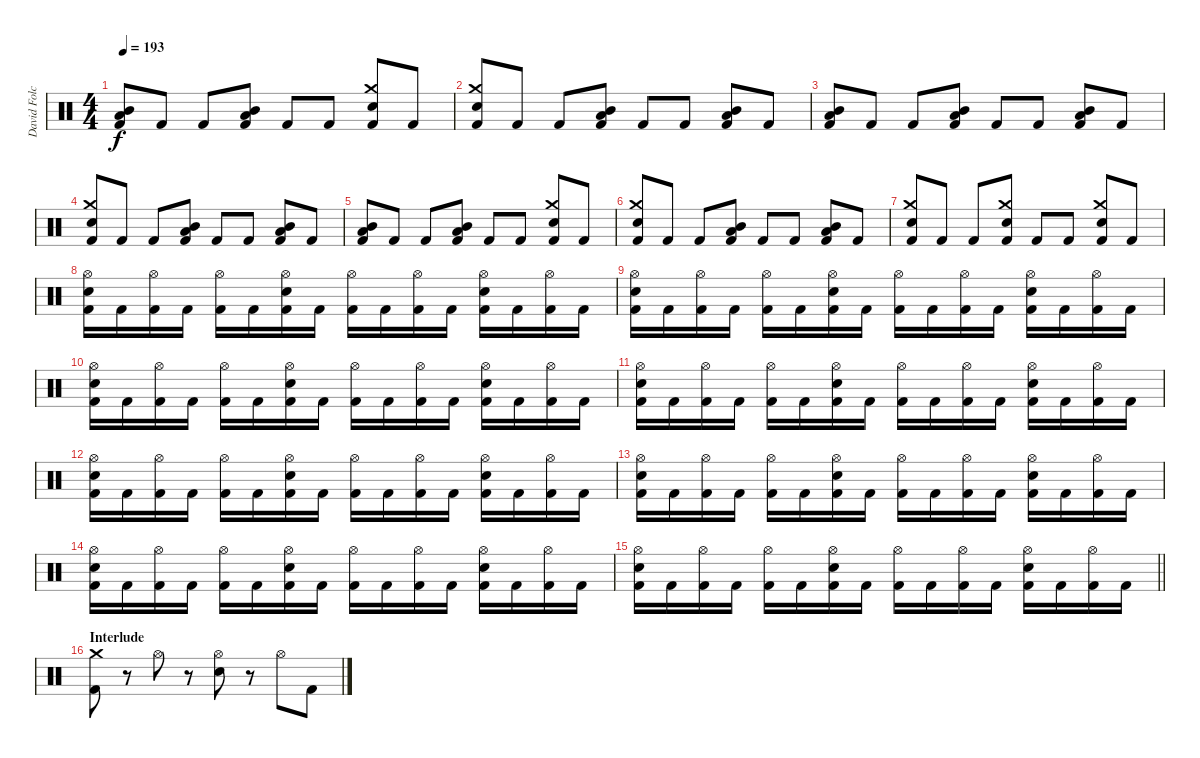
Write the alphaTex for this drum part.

\track ("David Folchitto (Drums)" "David Folc") {instrument percussion}
\staff {score}
\articulation defaults
\ts (4 4)
\tempo 193
\clef neutral
\ks c
("Mid Tom (hit)" "Low Tom (hit)" "Kick (hit) 2").8{dy f} "Kick (hit) 2".8 "Kick (hit) 2".8 ("Mid Tom (hit)" "Low Tom (hit)" "Kick (hit) 2").8 "Kick (hit) 2".8 "Kick (hit) 2".8 ("Crash medium (hit)" "Snare (hit) 2" "Kick (hit) 2").8 "Kick (hit) 2".8 |
("Crash medium (hit)" "Snare (hit) 2" "Kick (hit) 2").8 "Kick (hit) 2".8 "Kick (hit) 2".8 ("Mid Tom (hit)" "Low Tom (hit)" "Kick (hit) 2").8 "Kick (hit) 2".8 "Kick (hit) 2".8 ("Mid Tom (hit)" "Low Tom (hit)" "Kick (hit) 2").8 "Kick (hit) 2".8 |
("Mid Tom (hit)" "Low Tom (hit)" "Kick (hit) 2").8 "Kick (hit) 2".8 "Kick (hit) 2".8 ("Mid Tom (hit)" "Low Tom (hit)" "Kick (hit) 2").8 "Kick (hit) 2".8 "Kick (hit) 2".8 ("Mid Tom (hit)" "Low Tom (hit)" "Kick (hit) 2").8 "Kick (hit) 2".8 |
("Crash medium (hit)" "Snare (hit) 2" "Kick (hit) 2").8 "Kick (hit) 2".8 "Kick (hit) 2".8 ("Mid Tom (hit)" "Low Tom (hit)" "Kick (hit) 2").8 "Kick (hit) 2".8 "Kick (hit) 2".8 ("Mid Tom (hit)" "Low Tom (hit)" "Kick (hit) 2").8 "Kick (hit) 2".8 |
("Mid Tom (hit)" "Low Tom (hit)" "Kick (hit) 2").8 "Kick (hit) 2".8 "Kick (hit) 2".8 ("Mid Tom (hit)" "Low Tom (hit)" "Kick (hit) 2").8 "Kick (hit) 2".8 "Kick (hit) 2".8 ("Crash medium (hit)" "Snare (hit) 2" "Kick (hit) 2").8 "Kick (hit) 2".8 |
("Crash medium (hit)" "Snare (hit) 2" "Kick (hit) 2").8 "Kick (hit) 2".8 "Kick (hit) 2".8 ("Mid Tom (hit)" "Low Tom (hit)" "Kick (hit) 2").8 "Kick (hit) 2".8 "Kick (hit) 2".8 ("Mid Tom (hit)" "Low Tom (hit)" "Kick (hit) 2").8 "Kick (hit) 2".8 |
("Crash medium (hit)" "Snare (hit) 2" "Kick (hit) 2").8 "Kick (hit) 2".8 "Kick (hit) 2".8 ("Crash medium (hit)" "Snare (hit) 2" "Kick (hit) 2").8 "Kick (hit) 2".8 "Kick (hit) 2".8 ("Crash medium (hit)" "Snare (hit) 2" "Kick (hit) 2").8 "Kick (hit) 2".8 |
("Hi-Hat (open)" "Snare (hit) 2" "Kick (hit) 2").16 "Kick (hit) 2".16 ("Hi-Hat (open)" "Kick (hit) 2").16 "Kick (hit) 2".16 ("Hi-Hat (open)" "Kick (hit) 2").16 "Kick (hit) 2".16 ("Hi-Hat (open)" "Snare (hit) 2" "Kick (hit) 2").16 "Kick (hit) 2".16 ("Hi-Hat (open)" "Kick (hit) 2").16 "Kick (hit) 2".16 ("Hi-Hat (open)" "Kick (hit) 2").16 "Kick (hit) 2".16 ("Hi-Hat (open)" "Snare (hit) 2" "Kick (hit) 2").16 "Kick (hit) 2".16 ("Hi-Hat (open)" "Kick (hit) 2").16 "Kick (hit) 2".16 |
("Hi-Hat (open)" "Snare (hit) 2" "Kick (hit) 2").16 "Kick (hit) 2".16 ("Hi-Hat (open)" "Kick (hit) 2").16 "Kick (hit) 2".16 ("Hi-Hat (open)" "Kick (hit) 2").16 "Kick (hit) 2".16 ("Hi-Hat (open)" "Snare (hit) 2" "Kick (hit) 2").16 "Kick (hit) 2".16 ("Hi-Hat (open)" "Kick (hit) 2").16 "Kick (hit) 2".16 ("Hi-Hat (open)" "Kick (hit) 2").16 "Kick (hit) 2".16 ("Hi-Hat (open)" "Snare (hit) 2" "Kick (hit) 2").16 "Kick (hit) 2".16 ("Hi-Hat (open)" "Kick (hit) 2").16 "Kick (hit) 2".16 |
("Hi-Hat (open)" "Snare (hit) 2" "Kick (hit) 2").16 "Kick (hit) 2".16 ("Hi-Hat (open)" "Kick (hit) 2").16 "Kick (hit) 2".16 ("Hi-Hat (open)" "Kick (hit) 2").16 "Kick (hit) 2".16 ("Hi-Hat (open)" "Snare (hit) 2" "Kick (hit) 2").16 "Kick (hit) 2".16 ("Hi-Hat (open)" "Kick (hit) 2").16 "Kick (hit) 2".16 ("Hi-Hat (open)" "Kick (hit) 2").16 "Kick (hit) 2".16 ("Hi-Hat (open)" "Snare (hit) 2" "Kick (hit) 2").16 "Kick (hit) 2".16 ("Hi-Hat (open)" "Kick (hit) 2").16 "Kick (hit) 2".16 |
("Hi-Hat (open)" "Snare (hit) 2" "Kick (hit) 2").16 "Kick (hit) 2".16 ("Hi-Hat (open)" "Kick (hit) 2").16 "Kick (hit) 2".16 ("Hi-Hat (open)" "Kick (hit) 2").16 "Kick (hit) 2".16 ("Hi-Hat (open)" "Snare (hit) 2" "Kick (hit) 2").16 "Kick (hit) 2".16 ("Hi-Hat (open)" "Kick (hit) 2").16 "Kick (hit) 2".16 ("Hi-Hat (open)" "Kick (hit) 2").16 "Kick (hit) 2".16 ("Hi-Hat (open)" "Snare (hit) 2" "Kick (hit) 2").16 "Kick (hit) 2".16 ("Hi-Hat (open)" "Kick (hit) 2").16 "Kick (hit) 2".16 |
("Hi-Hat (open)" "Snare (hit) 2" "Kick (hit) 2").16 "Kick (hit) 2".16 ("Hi-Hat (open)" "Kick (hit) 2").16 "Kick (hit) 2".16 ("Hi-Hat (open)" "Kick (hit) 2").16 "Kick (hit) 2".16 ("Hi-Hat (open)" "Snare (hit) 2" "Kick (hit) 2").16 "Kick (hit) 2".16 ("Hi-Hat (open)" "Kick (hit) 2").16 "Kick (hit) 2".16 ("Hi-Hat (open)" "Kick (hit) 2").16 "Kick (hit) 2".16 ("Hi-Hat (open)" "Snare (hit) 2" "Kick (hit) 2").16 "Kick (hit) 2".16 ("Hi-Hat (open)" "Kick (hit) 2").16 "Kick (hit) 2".16 |
("Hi-Hat (open)" "Snare (hit) 2" "Kick (hit) 2").16 "Kick (hit) 2".16 ("Hi-Hat (open)" "Kick (hit) 2").16 "Kick (hit) 2".16 ("Hi-Hat (open)" "Kick (hit) 2").16 "Kick (hit) 2".16 ("Hi-Hat (open)" "Snare (hit) 2" "Kick (hit) 2").16 "Kick (hit) 2".16 ("Hi-Hat (open)" "Kick (hit) 2").16 "Kick (hit) 2".16 ("Hi-Hat (open)" "Kick (hit) 2").16 "Kick (hit) 2".16 ("Hi-Hat (open)" "Snare (hit) 2" "Kick (hit) 2").16 "Kick (hit) 2".16 ("Hi-Hat (open)" "Kick (hit) 2").16 "Kick (hit) 2".16 |
("Hi-Hat (open)" "Snare (hit) 2" "Kick (hit) 2").16 "Kick (hit) 2".16 ("Hi-Hat (open)" "Kick (hit) 2").16 "Kick (hit) 2".16 ("Hi-Hat (open)" "Kick (hit) 2").16 "Kick (hit) 2".16 ("Hi-Hat (open)" "Snare (hit) 2" "Kick (hit) 2").16 "Kick (hit) 2".16 ("Hi-Hat (open)" "Kick (hit) 2").16 "Kick (hit) 2".16 ("Hi-Hat (open)" "Kick (hit) 2").16 "Kick (hit) 2".16 ("Hi-Hat (open)" "Snare (hit) 2" "Kick (hit) 2").16 "Kick (hit) 2".16 ("Hi-Hat (open)" "Kick (hit) 2").16 "Kick (hit) 2".16 |
\barLineRight lightlight
("Hi-Hat (open)" "Snare (hit) 2" "Kick (hit) 2").16 "Kick (hit) 2".16 ("Hi-Hat (open)" "Kick (hit) 2").16 "Kick (hit) 2".16 ("Hi-Hat (open)" "Kick (hit) 2").16 "Kick (hit) 2".16 ("Hi-Hat (open)" "Snare (hit) 2" "Kick (hit) 2").16 "Kick (hit) 2".16 ("Hi-Hat (open)" "Kick (hit) 2").16 "Kick (hit) 2".16 ("Hi-Hat (open)" "Kick (hit) 2").16 "Kick (hit) 2".16 ("Hi-Hat (open)" "Snare (hit) 2" "Kick (hit) 2").16 "Kick (hit) 2".16 ("Hi-Hat (open)" "Kick (hit) 2").16 "Kick (hit) 2".16 |
\section ("" "Interlude")
("Crash medium (hit)" "Kick (hit) 2").8 r.8 "Hi-Hat (open)".8 r.8 ("Hi-Hat (open)" "Snare (hit) 2").8 r.8 "Hi-Hat (open)".8 "Kick (hit) 2".8
